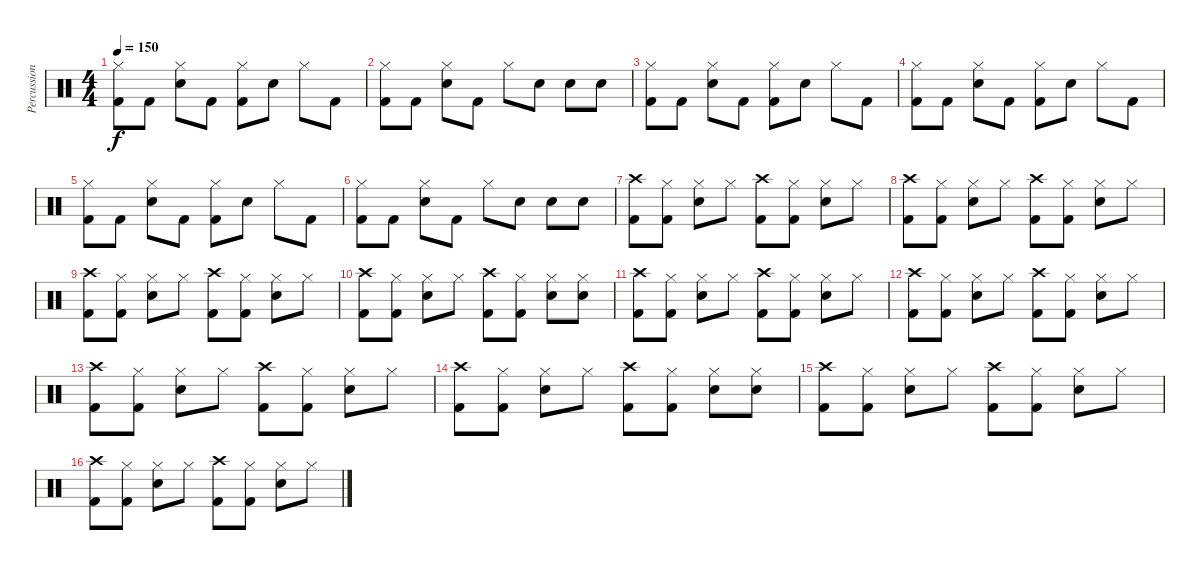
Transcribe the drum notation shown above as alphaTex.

\track ("Percussion" "Percussion") {instrument percussion}
\staff {score}
\articulation defaults
\ts (4 4)
\tempo 150
\clef neutral
\ks c
("Hi-Hat (closed)" "Kick (hit) 2").8{dy f} "Kick (hit) 2".8 ("Hi-Hat (closed)" "Electric Snare (hit)").8 "Kick (hit) 2".8 ("Hi-Hat (closed)" "Kick (hit) 2").8 "Electric Snare (hit)".8 "Hi-Hat (closed)".8 "Kick (hit) 2".8 |
("Hi-Hat (closed)" "Kick (hit) 2").8 "Kick (hit) 2".8 ("Hi-Hat (closed)" "Electric Snare (hit)").8 "Kick (hit) 2".8 "Hi-Hat (closed)".8 "Electric Snare (hit)".8 "Electric Snare (hit)".8 "Electric Snare (hit)".8 |
("Hi-Hat (closed)" "Kick (hit) 2").8 "Kick (hit) 2".8 ("Hi-Hat (closed)" "Electric Snare (hit)").8 "Kick (hit) 2".8 ("Hi-Hat (closed)" "Kick (hit) 2").8 "Electric Snare (hit)".8 "Hi-Hat (closed)".8 "Kick (hit) 2".8 |
("Hi-Hat (closed)" "Kick (hit) 2").8 "Kick (hit) 2".8 ("Hi-Hat (closed)" "Electric Snare (hit)").8 "Kick (hit) 2".8 ("Hi-Hat (closed)" "Kick (hit) 2").8 "Electric Snare (hit)".8 "Hi-Hat (closed)".8 "Kick (hit) 2".8 |
("Hi-Hat (closed)" "Kick (hit) 2").8 "Kick (hit) 2".8 ("Hi-Hat (closed)" "Electric Snare (hit)").8 "Kick (hit) 2".8 ("Hi-Hat (closed)" "Kick (hit) 2").8 "Electric Snare (hit)".8 "Hi-Hat (closed)".8 "Kick (hit) 2".8 |
("Hi-Hat (closed)" "Kick (hit) 2").8 "Kick (hit) 2".8 ("Hi-Hat (closed)" "Electric Snare (hit)").8 "Kick (hit) 2".8 "Hi-Hat (closed)".8 "Electric Snare (hit)".8 "Electric Snare (hit)".8 "Electric Snare (hit)".8 |
("Crash high (hit)" "Kick (hit) 2").8 ("Hi-Hat (closed)" "Kick (hit) 2").8 ("Hi-Hat (closed)" "Electric Snare (hit)").8 "Hi-Hat (closed)".8 ("Crash high (hit)" "Kick (hit) 2").8 ("Hi-Hat (closed)" "Kick (hit) 2").8 ("Hi-Hat (closed)" "Electric Snare (hit)").8 "Hi-Hat (closed)".8 |
("Crash high (hit)" "Kick (hit) 2").8 ("Hi-Hat (closed)" "Kick (hit) 2").8 ("Hi-Hat (closed)" "Electric Snare (hit)").8 "Hi-Hat (closed)".8 ("Crash high (hit)" "Kick (hit) 2").8 ("Hi-Hat (closed)" "Kick (hit) 2").8 ("Hi-Hat (closed)" "Electric Snare (hit)").8 "Hi-Hat (closed)".8 |
("Crash high (hit)" "Kick (hit) 2").8 ("Hi-Hat (closed)" "Kick (hit) 2").8 ("Hi-Hat (closed)" "Electric Snare (hit)").8 "Hi-Hat (closed)".8 ("Crash high (hit)" "Kick (hit) 2").8 ("Hi-Hat (closed)" "Kick (hit) 2").8 ("Hi-Hat (closed)" "Electric Snare (hit)").8 "Hi-Hat (closed)".8 |
("Crash high (hit)" "Kick (hit) 2").8 ("Hi-Hat (closed)" "Kick (hit) 2").8 ("Hi-Hat (closed)" "Electric Snare (hit)").8 "Hi-Hat (closed)".8 ("Crash high (hit)" "Kick (hit) 2").8 ("Hi-Hat (closed)" "Kick (hit) 2").8 ("Hi-Hat (closed)" "Electric Snare (hit)").8 ("Hi-Hat (closed)" "Electric Snare (hit)").8 |
("Crash high (hit)" "Kick (hit) 2").8 ("Hi-Hat (closed)" "Kick (hit) 2").8 ("Hi-Hat (closed)" "Electric Snare (hit)").8 "Hi-Hat (closed)".8 ("Crash high (hit)" "Kick (hit) 2").8 ("Hi-Hat (closed)" "Kick (hit) 2").8 ("Hi-Hat (closed)" "Electric Snare (hit)").8 "Hi-Hat (closed)".8 |
("Crash high (hit)" "Kick (hit) 2").8 ("Hi-Hat (closed)" "Kick (hit) 2").8 ("Hi-Hat (closed)" "Electric Snare (hit)").8 "Hi-Hat (closed)".8 ("Crash high (hit)" "Kick (hit) 2").8 ("Hi-Hat (closed)" "Kick (hit) 2").8 ("Hi-Hat (closed)" "Electric Snare (hit)").8 "Hi-Hat (closed)".8 |
("Crash high (hit)" "Kick (hit) 2").8 ("Hi-Hat (closed)" "Kick (hit) 2").8 ("Hi-Hat (closed)" "Electric Snare (hit)").8 "Hi-Hat (closed)".8 ("Crash high (hit)" "Kick (hit) 2").8 ("Hi-Hat (closed)" "Kick (hit) 2").8 ("Hi-Hat (closed)" "Electric Snare (hit)").8 "Hi-Hat (closed)".8 |
("Crash high (hit)" "Kick (hit) 2").8 ("Hi-Hat (closed)" "Kick (hit) 2").8 ("Hi-Hat (closed)" "Electric Snare (hit)").8 "Hi-Hat (closed)".8 ("Crash high (hit)" "Kick (hit) 2").8 ("Hi-Hat (closed)" "Kick (hit) 2").8 ("Hi-Hat (closed)" "Electric Snare (hit)").8 ("Hi-Hat (closed)" "Electric Snare (hit)").8 |
("Crash high (hit)" "Kick (hit) 2").8 ("Hi-Hat (closed)" "Kick (hit) 2").8 ("Hi-Hat (closed)" "Electric Snare (hit)").8 "Hi-Hat (closed)".8 ("Crash high (hit)" "Kick (hit) 2").8 ("Hi-Hat (closed)" "Kick (hit) 2").8 ("Hi-Hat (closed)" "Electric Snare (hit)").8 "Hi-Hat (closed)".8 |
("Crash high (hit)" "Kick (hit) 2").8 ("Hi-Hat (closed)" "Kick (hit) 2").8 ("Hi-Hat (closed)" "Electric Snare (hit)").8 "Hi-Hat (closed)".8 ("Crash high (hit)" "Kick (hit) 2").8 ("Hi-Hat (closed)" "Kick (hit) 2").8 ("Hi-Hat (closed)" "Electric Snare (hit)").8 "Hi-Hat (closed)".8
